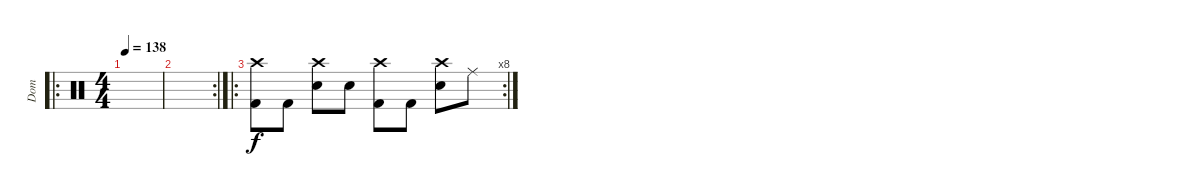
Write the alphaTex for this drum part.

\track ("Dom" "Dom") {instrument percussion}
\staff {score}
\articulation defaults
\ro
\ts (4 4)
\tempo 138
\clef neutral
\ks c
|
\rc 2
|
\ro
\rc 8
("Crash high (hit)" "Kick (hit) 2").8 "Kick (hit) 2".8 ("Crash high (hit)" "Snare (hit) 2").8 "Snare (hit) 2".8 ("Crash high (hit)" "Kick (hit) 2").8 "Kick (hit) 2".8 ("Crash high (hit)" "Snare (hit) 2").8 "Ride (middle)".8
